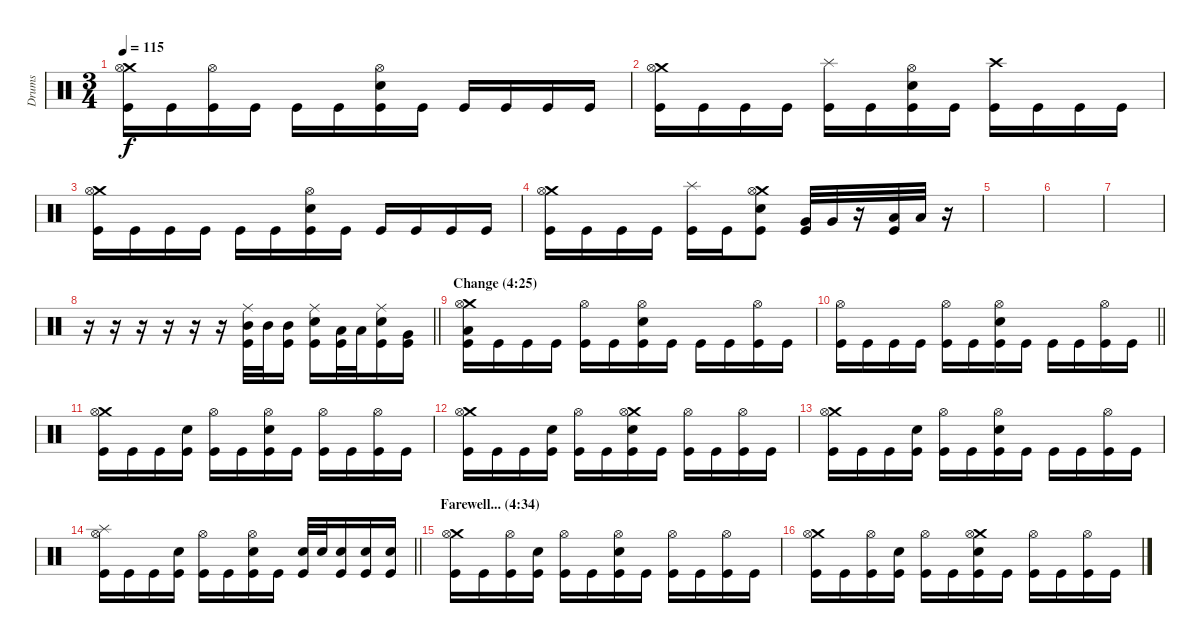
\track ("Drums" "Drums") {instrument percussion}
\staff {score}
\articulation defaults
\ts (3 4)
\tempo 115
\clef neutral
\ks c
("Crash medium (hit)" "Hi-Hat (open)" "Kick (hit)").16{dy f} "Kick (hit)".16 ("Hi-Hat (open)" "Kick (hit)").16 "Kick (hit)".16 "Kick (hit)".16 "Kick (hit)".16 ("Hi-Hat (open)" "Electric Snare (hit)" "Kick (hit)").16 "Kick (hit)".16 "Kick (hit)".16 "Kick (hit)".16 "Kick (hit)".16 "Kick (hit)".16 |
("Crash medium (hit)" "Hi-Hat (open)" "Kick (hit)").16 "Kick (hit)".16 "Kick (hit)".16 "Kick (hit)".16 ("Splash (hit)" "Kick (hit)").16 "Kick (hit)".16 ("Hi-Hat (open)" "Electric Snare (hit)" "Kick (hit)").16 "Kick (hit)".16 ("Crash high (hit)" "Kick (hit)").16 "Kick (hit)".16 "Kick (hit)".16 "Kick (hit)".16 |
("Crash medium (hit)" "Hi-Hat (open)" "Kick (hit)").16 "Kick (hit)".16 "Kick (hit)".16 "Kick (hit)".16 "Kick (hit)".16 "Kick (hit)".16 ("Hi-Hat (open)" "Electric Snare (hit)" "Kick (hit)").16 "Kick (hit)".16 "Kick (hit)".16 "Kick (hit)".16 "Kick (hit)".16 "Kick (hit)".16 |
("Crash medium (hit)" "Hi-Hat (open)" "Kick (hit)").16 "Kick (hit)".16 "Kick (hit)".16 "Kick (hit)".16 ("Splash (hit)" "Kick (hit)").16 "Kick (hit)".16 ("Crash medium (hit)" "Hi-Hat (open)" "Electric Snare (hit)" "Kick (hit)").8 ("Very Low Tom (hit)" "Kick (hit)").32 "Very Low Tom (hit)".32 r.16 ("Low Floor Tom (hit)" "Kick (hit)").32 "Low Floor Tom (hit)".32 r.16 |
|
|
|
\barLineRight lightlight
r.16 r.16 r.16 r.16 r.16 r.16 ("Mid Tom (hit)" "Ride (middle)" "Kick (hit)").32 "Mid Tom (hit)".32 ("Mid Tom (hit)" "Kick (hit)").16 ("Electric Snare (hit)" "Ride (middle)" "Kick (hit)").16 ("Low Tom (hit)" "Kick (hit)").32 "Low Tom (hit)".32 ("Electric Snare (hit)" "Ride (middle)" "Kick (hit)").16 ("Very Low Tom (hit)" "Kick (hit)").16 |
\section ("" "Change (4:25)")
("Crash medium (hit)" "Hi-Hat (open)" "Low Floor Tom (hit)" "Kick (hit)").16 "Kick (hit)".16 "Kick (hit)".16 "Kick (hit)".16 ("Hi-Hat (open)" "Kick (hit)").16 "Kick (hit)".16 ("Hi-Hat (open)" "Electric Snare (hit)" "Kick (hit)").16 "Kick (hit)".16 "Kick (hit)".16 "Kick (hit)".16 ("Hi-Hat (open)" "Kick (hit)").16 "Kick (hit)".16 |
\barLineRight lightlight
("Hi-Hat (open)" "Kick (hit)").16 "Kick (hit)".16 "Kick (hit)".16 "Kick (hit)".16 ("Hi-Hat (open)" "Kick (hit)").16 "Kick (hit)".16 ("Hi-Hat (open)" "Electric Snare (hit)" "Kick (hit)").16 "Kick (hit)".16 "Kick (hit)".16 "Kick (hit)".16 ("Hi-Hat (open)" "Kick (hit)").16 "Kick (hit)".16 |
("Crash medium (hit)" "Hi-Hat (open)" "Kick (hit)").16 "Kick (hit)".16 "Kick (hit)".16 ("Electric Snare (hit)" "Kick (hit)").16 ("Hi-Hat (open)" "Kick (hit)").16 "Kick (hit)".16 ("Hi-Hat (open)" "Electric Snare (hit)" "Kick (hit)").16 "Kick (hit)".16 ("Hi-Hat (open)" "Kick (hit)").16 "Kick (hit)".16 ("Hi-Hat (open)" "Kick (hit)").16 "Kick (hit)".16 |
("Crash medium (hit)" "Hi-Hat (open)" "Kick (hit)").16 "Kick (hit)".16 "Kick (hit)".16 ("Electric Snare (hit)" "Kick (hit)").16 ("Hi-Hat (open)" "Kick (hit)").16 "Kick (hit)".16 ("Crash medium (hit)" "Hi-Hat (open)" "Electric Snare (hit)" "Kick (hit)").16 "Kick (hit)".16 ("Hi-Hat (open)" "Kick (hit)").16 "Kick (hit)".16 ("Hi-Hat (open)" "Kick (hit)").16 "Kick (hit)".16 |
("Crash medium (hit)" "Hi-Hat (open)" "Kick (hit)").16 "Kick (hit)".16 "Kick (hit)".16 ("Electric Snare (hit)" "Kick (hit)").16 ("Hi-Hat (open)" "Kick (hit)").16 "Kick (hit)".16 ("Hi-Hat (open)" "Electric Snare (hit)" "Kick (hit)").16 "Kick (hit)".16 "Kick (hit)".16 "Kick (hit)".16 ("Hi-Hat (open)" "Kick (hit)").16 "Kick (hit)".16 |
\barLineRight lightlight
("Splash (hit)" "Hi-Hat (open)" "Kick (hit)").16 "Kick (hit)".16 "Kick (hit)".16 ("Electric Snare (hit)" "Kick (hit)").16 ("Hi-Hat (open)" "Kick (hit)").16 "Kick (hit)".16 ("Hi-Hat (open)" "Electric Snare (hit)" "Kick (hit)").16 "Kick (hit)".16 ("Electric Snare (hit)" "Kick (hit)").32 "Electric Snare (hit)".32 ("Electric Snare (hit)" "Kick (hit)").16 ("Electric Snare (hit)" "Kick (hit)").16 ("Electric Snare (hit)" "Kick (hit)").16 |
\section ("" "Farewell... (4:34)")
("Crash medium (hit)" "Hi-Hat (open)" "Kick (hit)").16 "Kick (hit)".16 ("Hi-Hat (open)" "Kick (hit)").16 ("Electric Snare (hit)" "Kick (hit)").16 ("Hi-Hat (open)" "Kick (hit)").16 "Kick (hit)".16 ("Hi-Hat (open)" "Electric Snare (hit)" "Kick (hit)").16 "Kick (hit)".16 ("Hi-Hat (open)" "Kick (hit)").16 "Kick (hit)".16 ("Hi-Hat (open)" "Kick (hit)").16 "Kick (hit)".16 |
("Crash medium (hit)" "Hi-Hat (open)" "Kick (hit)").16 "Kick (hit)".16 ("Hi-Hat (open)" "Kick (hit)").16 ("Electric Snare (hit)" "Kick (hit)").16 ("Hi-Hat (open)" "Kick (hit)").16 "Kick (hit)".16 ("Crash medium (hit)" "Hi-Hat (open)" "Electric Snare (hit)" "Kick (hit)").16 "Kick (hit)".16 ("Hi-Hat (open)" "Kick (hit)").16 "Kick (hit)".16 ("Hi-Hat (open)" "Kick (hit)").16 "Kick (hit)".16
